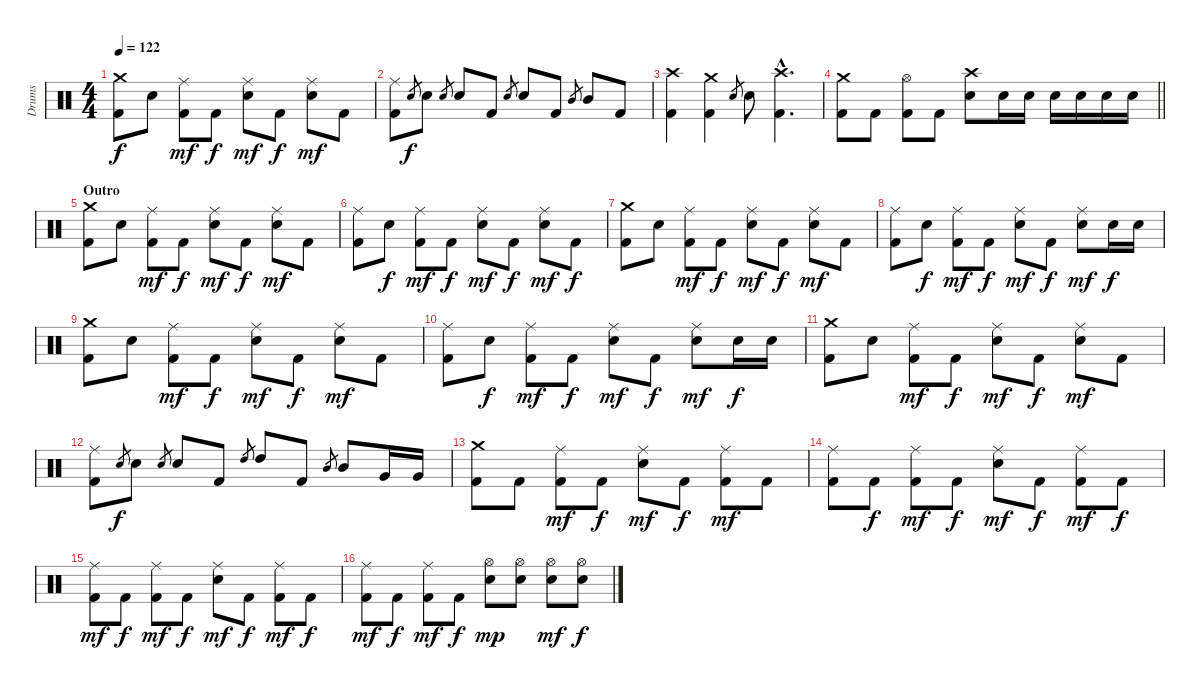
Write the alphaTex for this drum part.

\track ("Drums" "Drums") {instrument percussion}
\staff {score}
\articulation defaults
\ts (4 4)
\tempo 122
\clef neutral
\ks c
("Crash medium (hit)" "Kick (hit) 2").8{dy f} "Snare (hit) 2".8 ("Kick (hit) 2" "Ride (middle)").8{dy mf} "Kick (hit) 2".8{dy f} ("Snare (hit) 2" "Ride (middle)").8{dy mf} "Kick (hit) 2".8{dy f} ("Snare (hit) 2" "Ride (middle)").8{dy mf} "Kick (hit) 2".8 |
("Kick (hit) 2" "Ride (middle)").8 "Snare (hit) 2".8{gr dy f} "Snare (hit) 2".8 "Snare (hit) 2".8{gr} "Snare (hit) 2".8 "Kick (hit) 2".8 "Snare (hit) 2".8{gr} "Snare (hit) 2".8 "Kick (hit) 2".8 "Mid Tom (hit)".8{gr} "Mid Tom (hit)".8 "Kick (hit) 2".8 |
("Kick (hit) 2" "Crash high (hit)").4 ("Kick (hit) 2" "Crash medium (hit)").4 "Snare (hit) 2".8{gr} "Snare (hit) 2".8 ("Kick (hit) 2"{hac} "Crash high (hit)"{hac}).4{d} |
\barLineRight lightlight
("Kick (hit) 2" "Crash medium (hit)").8 "Kick (hit) 2".8 ("Kick (hit) 2" "Hi-Hat (open)").8 "Kick (hit) 2".8 ("Snare (hit) 2" "Crash high (hit)").8 "Snare (hit) 2".16 "Snare (hit) 2".16 "Snare (hit) 2".16 "Snare (hit) 2".16 "Snare (hit) 2".16 "Snare (hit) 2".16 |
\section ("" "Outro")
("Crash medium (hit)" "Kick (hit) 2").8 "Snare (hit) 2".8 ("Kick (hit) 2" "Ride (middle)").8{dy mf} "Kick (hit) 2".8{dy f} ("Snare (hit) 2" "Ride (middle)").8{dy mf} "Kick (hit) 2".8{dy f} ("Snare (hit) 2" "Ride (middle)").8{dy mf} "Kick (hit) 2".8 |
("Kick (hit) 2" "Ride (middle)").8 "Snare (hit) 2".8{dy f} ("Kick (hit) 2" "Ride (middle)").8{dy mf} "Kick (hit) 2".8{dy f} ("Snare (hit) 2" "Ride (middle)").8{dy mf} "Kick (hit) 2".8{dy f} ("Snare (hit) 2" "Ride (middle)").8{dy mf} "Kick (hit) 2".8{dy f} |
("Crash medium (hit)" "Kick (hit) 2").8 "Snare (hit) 2".8 ("Kick (hit) 2" "Ride (middle)").8{dy mf} "Kick (hit) 2".8{dy f} ("Snare (hit) 2" "Ride (middle)").8{dy mf} "Kick (hit) 2".8{dy f} ("Snare (hit) 2" "Ride (middle)").8{dy mf} "Kick (hit) 2".8 |
("Kick (hit) 2" "Ride (middle)").8 "Snare (hit) 2".8{dy f} ("Kick (hit) 2" "Ride (middle)").8{dy mf} "Kick (hit) 2".8{dy f} ("Snare (hit) 2" "Ride (middle)").8{dy mf} "Kick (hit) 2".8{dy f} ("Snare (hit) 2" "Ride (middle)").8{dy mf} "Snare (hit) 2".16{dy f} "Snare (hit) 2".16 |
("Crash medium (hit)" "Kick (hit) 2").8 "Snare (hit) 2".8 ("Kick (hit) 2" "Ride (middle)").8{dy mf} "Kick (hit) 2".8{dy f} ("Snare (hit) 2" "Ride (middle)").8{dy mf} "Kick (hit) 2".8{dy f} ("Snare (hit) 2" "Ride (middle)").8{dy mf} "Kick (hit) 2".8 |
("Kick (hit) 2" "Ride (middle)").8 "Snare (hit) 2".8{dy f} ("Kick (hit) 2" "Ride (middle)").8{dy mf} "Kick (hit) 2".8{dy f} ("Snare (hit) 2" "Ride (middle)").8{dy mf} "Kick (hit) 2".8{dy f} ("Snare (hit) 2" "Ride (middle)").8{dy mf} "Snare (hit) 2".16{dy f} "Snare (hit) 2".16 |
("Crash medium (hit)" "Kick (hit) 2").8 "Snare (hit) 2".8 ("Kick (hit) 2" "Ride (middle)").8{dy mf} "Kick (hit) 2".8{dy f} ("Snare (hit) 2" "Ride (middle)").8{dy mf} "Kick (hit) 2".8{dy f} ("Snare (hit) 2" "Ride (middle)").8{dy mf} "Kick (hit) 2".8 |
("Kick (hit) 2" "Ride (middle)").8 "Snare (hit) 2".8{gr dy f} "Snare (hit) 2".8 "Snare (hit) 2".8{gr} "Snare (hit) 2".8 "Kick (hit) 2".8 "High Tom (hit)".8{gr} "High Tom (hit)".8 "Kick (hit) 2".8 "Mid Tom (hit)".8{gr} "Mid Tom (hit)".8 "Very Low Tom (hit)".16 "Very Low Tom (hit)".16 |
("Crash medium (hit)" "Kick (hit) 2").8 "Kick (hit) 2".8 ("Kick (hit) 2" "Ride (middle)").8{dy mf} "Kick (hit) 2".8{dy f} ("Snare (hit) 2" "Ride (middle)").8{dy mf} "Kick (hit) 2".8{dy f} ("Kick (hit) 2" "Ride (middle)").8{dy mf} "Kick (hit) 2".8 |
("Kick (hit) 2" "Ride (middle)").8 "Kick (hit) 2".8{dy f} ("Kick (hit) 2" "Ride (middle)").8{dy mf} "Kick (hit) 2".8{dy f} ("Snare (hit) 2" "Ride (middle)").8{dy mf} "Kick (hit) 2".8{dy f} ("Kick (hit) 2" "Ride (middle)").8{dy mf} "Kick (hit) 2".8{dy f} |
("Kick (hit) 2" "Ride (middle)").8{dy mf} "Kick (hit) 2".8{dy f} ("Kick (hit) 2" "Ride (middle)").8{dy mf} "Kick (hit) 2".8{dy f} ("Snare (hit) 2" "Ride (middle)").8{dy mf} "Kick (hit) 2".8{dy f} ("Kick (hit) 2" "Ride (middle)").8{dy mf} "Kick (hit) 2".8{dy f} |
("Kick (hit) 2" "Ride (middle)").8{dy mf} "Kick (hit) 2".8{dy f} ("Kick (hit) 2" "Ride (middle)").8{dy mf} "Kick (hit) 2".8{dy f} ("Snare (hit) 2" "Hi-Hat (open)").8{dy mp} ("Snare (hit) 2" "Hi-Hat (open)").8 ("Snare (hit) 2" "Hi-Hat (open)").8{dy mf} ("Snare (hit) 2" "Hi-Hat (open)").8{dy f}
